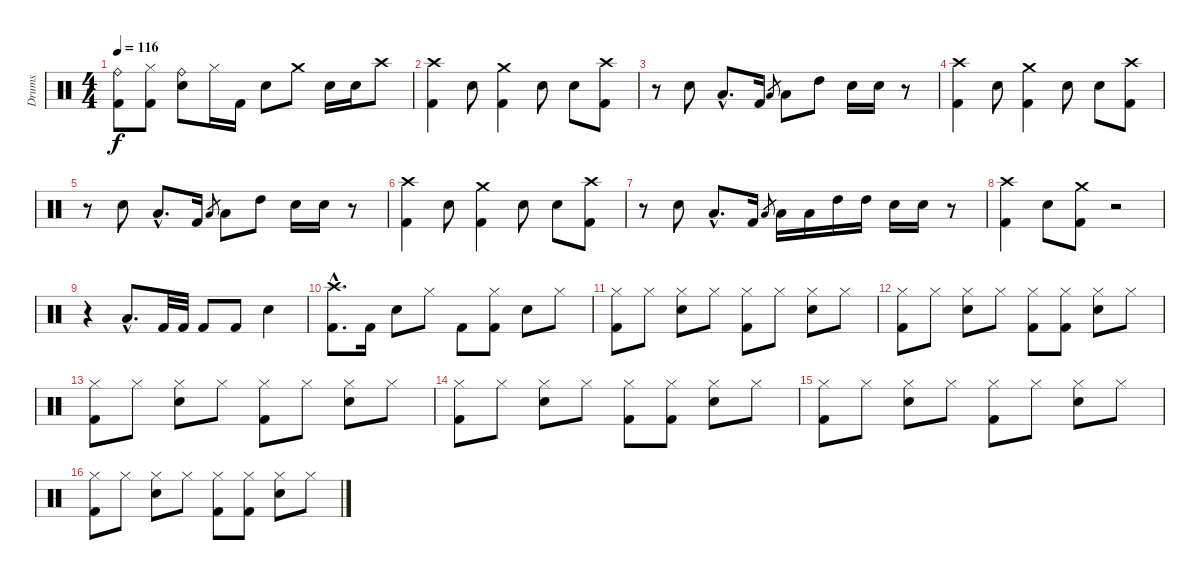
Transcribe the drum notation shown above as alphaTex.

\track ("Drums" "Drums") {instrument percussion}
\staff {score}
\articulation defaults
\ts (4 4)
\tempo 116
\clef neutral
\ks c
("Kick (hit) 2" "Ride (bell)").8{dy f} ("Kick (hit) 2" "Hi-Hat (closed)").8 ("Snare (hit) 2" "Ride (bell)").8 "Hi-Hat (closed)".16 "Kick (hit) 2".16 "Snare (hit) 2".8 "Crash medium (hit)".8 "Snare (hit) 2".16 "Snare (hit) 2".16 "Crash high (hit)".8 |
("Kick (hit) 2" "Crash high (hit)").4 "Snare (hit) 2".8 ("Kick (hit) 2" "Crash medium (hit)").4 "Snare (hit) 2".8 "Snare (hit) 2".8 ("Kick (hit) 2" "Crash high (hit)").8 |
r.8 "Snare (hit) 2".8 "Low Tom (hit)"{hac}.8{d} "Kick (hit) 2".16 "Low Tom (hit)".8{gr} "Low Tom (hit)".8 "High Tom (hit)".8 "Snare (hit) 2".16 "Snare (hit) 2".16 r.8 |
("Kick (hit) 2" "Crash high (hit)").4 "Snare (hit) 2".8 ("Kick (hit) 2" "Crash medium (hit)").4 "Snare (hit) 2".8 "Snare (hit) 2".8 ("Kick (hit) 2" "Crash high (hit)").8 |
r.8 "Snare (hit) 2".8 "Low Tom (hit)"{hac}.8{d} "Kick (hit) 2".16 "Low Tom (hit)".8{gr} "Low Tom (hit)".8 "High Tom (hit)".8 "Snare (hit) 2".16 "Snare (hit) 2".16 r.8 |
("Kick (hit) 2" "Crash high (hit)").4 "Snare (hit) 2".8 ("Kick (hit) 2" "Crash medium (hit)").4 "Snare (hit) 2".8 "Snare (hit) 2".8 ("Kick (hit) 2" "Crash high (hit)").8 |
r.8 "Snare (hit) 2".8 "Low Tom (hit)"{hac}.8{d} "Kick (hit) 2".16 "Low Tom (hit)".8{gr} "Low Tom (hit)".16 "Low Tom (hit)".16 "High Tom (hit)".16 "High Tom (hit)".16 "Snare (hit) 2".16 "Snare (hit) 2".16 r.8 |
("Kick (hit) 2" "Crash high (hit)").4 "Snare (hit) 2".8 ("Kick (hit) 2" "Crash medium (hit)").8 r.2 |
r.4 "Low Tom (hit)"{hac}.8{d} "Kick (hit) 2".32 "Kick (hit) 2".32 "Kick (hit) 2".8 "Kick (hit) 2".8 "Snare (hit) 2".4 |
("Kick (hit) 2"{hac} "Crash high (hit)"{hac}).8{d} "Kick (hit) 2".16 "Snare (hit) 2".8 "Hi-Hat (closed)".8 "Kick (hit) 2".8 ("Kick (hit) 2" "Hi-Hat (closed)").8 "Snare (hit) 2".8 "Hi-Hat (closed)".8 |
("Kick (hit) 2" "Hi-Hat (closed)").8 "Hi-Hat (closed)".8 ("Snare (hit) 2" "Hi-Hat (closed)").8 "Hi-Hat (closed)".8 ("Kick (hit) 2" "Hi-Hat (closed)").8 "Hi-Hat (closed)".8 ("Snare (hit) 2" "Hi-Hat (closed)").8 "Hi-Hat (closed)".8 |
("Kick (hit) 2" "Hi-Hat (closed)").8 "Hi-Hat (closed)".8 ("Snare (hit) 2" "Hi-Hat (closed)").8 "Hi-Hat (closed)".8 ("Kick (hit) 2" "Hi-Hat (closed)").8 ("Kick (hit) 2" "Hi-Hat (closed)").8 ("Snare (hit) 2" "Hi-Hat (closed)").8 "Hi-Hat (closed)".8 |
("Kick (hit) 2" "Hi-Hat (closed)").8 "Hi-Hat (closed)".8 ("Snare (hit) 2" "Hi-Hat (closed)").8 "Hi-Hat (closed)".8 ("Kick (hit) 2" "Hi-Hat (closed)").8 "Hi-Hat (closed)".8 ("Snare (hit) 2" "Hi-Hat (closed)").8 "Hi-Hat (closed)".8 |
("Kick (hit) 2" "Hi-Hat (closed)").8 "Hi-Hat (closed)".8 ("Snare (hit) 2" "Hi-Hat (closed)").8 "Hi-Hat (closed)".8 ("Kick (hit) 2" "Hi-Hat (closed)").8 ("Kick (hit) 2" "Hi-Hat (closed)").8 ("Snare (hit) 2" "Hi-Hat (closed)").8 "Hi-Hat (closed)".8 |
("Kick (hit) 2" "Hi-Hat (closed)").8 "Hi-Hat (closed)".8 ("Snare (hit) 2" "Hi-Hat (closed)").8 "Hi-Hat (closed)".8 ("Kick (hit) 2" "Hi-Hat (closed)").8 "Hi-Hat (closed)".8 ("Snare (hit) 2" "Hi-Hat (closed)").8 "Hi-Hat (closed)".8 |
("Kick (hit) 2" "Hi-Hat (closed)").8 "Hi-Hat (closed)".8 ("Snare (hit) 2" "Hi-Hat (closed)").8 "Hi-Hat (closed)".8 ("Kick (hit) 2" "Hi-Hat (closed)").8 ("Kick (hit) 2" "Hi-Hat (closed)").8 ("Snare (hit) 2" "Hi-Hat (closed)").8 "Hi-Hat (closed)".8
